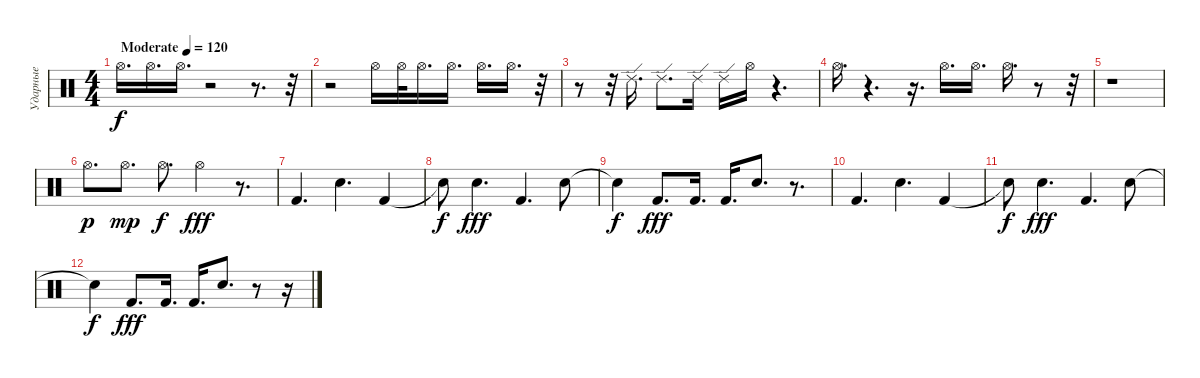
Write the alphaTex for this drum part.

\track ("Ударные" "Ударные") {instrument percussion}
\staff {score}
\articulation defaults
\ts (4 4)
\tempo (120 "Moderate")
\clef neutral
\ks c "Hi-Hat (open)".16{d dy f} "Hi-Hat (open)".16{d} "Hi-Hat (open)".16{d}
r.2 r.8{d} r.32 |
r.2 "Hi-Hat (open)".16 "Hi-Hat (open)".32 "Hi-Hat (open)".16{d} "Hi-Hat (open)".16{d} "Hi-Hat (open)".16{d} "Hi-Hat (open)".16{d} r.32 |
r.8 r.32 "Ride (edge) 2".16{d} "Ride (edge) 2".8{d} "Ride (edge) 2".16 "Ride (edge) 2".16 "Hi-Hat (open)".16 r.4{d} |
"Hi-Hat (open)".16{d} r.4{d} r.16{d} "Hi-Hat (open)".16{d} "Hi-Hat (open)".16{d} "Hi-Hat (open)".16{d} r.8 r.32 |
r.1 |
"Hi-Hat (open)".8{d dy p} "Hi-Hat (open)".8{d dy mp} "Hi-Hat (open)".8{d dy f} "Hi-Hat (open)".4{dy fff} r.8{d} |
"Kick (hit) 2".4{d} "Snare (hit) 2".4{d} "Kick (hit) 2".4 |
"Snare (hit)"{t}.8{dy f} "Snare (hit) 2".4{d dy fff} "Kick (hit) 2".4{d} "Snare (hit) 2".8 |
"Snare (hit)"{t}.4{dy f} "Kick (hit) 2".8{d dy fff} "Kick (hit) 2".16{d} "Kick (hit) 2".16{d} "Snare (hit) 2".8{d} r.8{d} |
"Kick (hit) 2".4{d} "Snare (hit) 2".4{d} "Kick (hit) 2".4 |
"Snare (hit)"{t}.8{dy f} "Snare (hit) 2".4{d dy fff} "Kick (hit) 2".4{d} "Snare (hit) 2".8 |
"Snare (hit)"{t}.4{dy f} "Kick (hit) 2".8{d dy fff} "Kick (hit) 2".16{d} "Kick (hit) 2".16{d} "Snare (hit) 2".8{d} r.8 r.16
